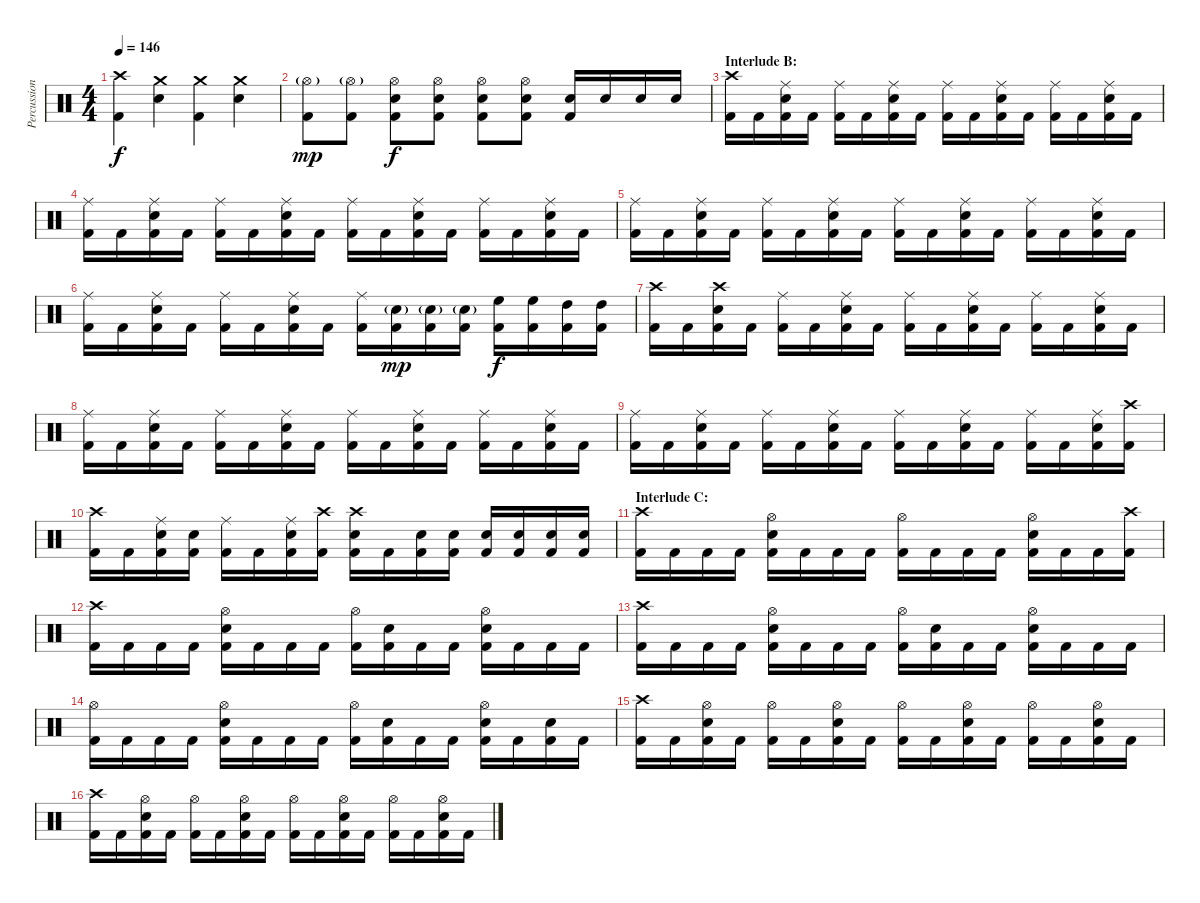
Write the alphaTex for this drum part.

\track ("Percussion" "Percussion") {instrument percussion}
\staff {score}
\articulation defaults
\ts (4 4)
\tempo 146
\clef neutral
\ks c
("Crash high (hit)" "Kick (hit) 2").4{dy f} ("Crash medium (hit)" "Snare (hit) 2").4 ("Crash medium (hit)" "Kick (hit) 2").4 ("Crash medium (hit)" "Snare (hit) 2").4 |
("Hi-Hat (open)"{g} "Kick (hit) 2").8{dy mp} ("Hi-Hat (open)"{g} "Kick (hit) 2").8 ("Hi-Hat (open)" "Snare (hit) 2" "Kick (hit) 2").8{dy f} ("Hi-Hat (open)" "Snare (hit) 2" "Kick (hit) 2").8 ("Hi-Hat (open)" "Snare (hit) 2" "Kick (hit) 2").8 ("Hi-Hat (open)" "Snare (hit) 2" "Kick (hit) 2").8 ("Snare (hit) 2" "Kick (hit) 2").16 "Snare (hit) 2".16 "Snare (hit) 2".16 "Snare (hit) 2".16 |
\section ("" "Interlude B:")
("Crash high (hit)" "Kick (hit) 2").16 "Kick (hit) 2".16 ("Ride (middle)" "Snare (hit) 2" "Kick (hit) 2").16 "Kick (hit) 2".16 ("Ride (middle)" "Kick (hit) 2").16 "Kick (hit) 2".16 ("Ride (middle)" "Snare (hit) 2" "Kick (hit) 2").16 "Kick (hit) 2".16 ("Ride (middle)" "Kick (hit) 2").16 "Kick (hit) 2".16 ("Ride (middle)" "Snare (hit) 2" "Kick (hit) 2").16 "Kick (hit) 2".16 ("Ride (middle)" "Kick (hit) 2").16 "Kick (hit) 2".16 ("Ride (middle)" "Snare (hit) 2" "Kick (hit) 2").16 "Kick (hit) 2".16 |
("Ride (middle)" "Kick (hit) 2").16 "Kick (hit) 2".16 ("Ride (middle)" "Snare (hit) 2" "Kick (hit) 2").16 "Kick (hit) 2".16 ("Ride (middle)" "Kick (hit) 2").16 "Kick (hit) 2".16 ("Ride (middle)" "Snare (hit) 2" "Kick (hit) 2").16 "Kick (hit) 2".16 ("Ride (middle)" "Kick (hit) 2").16 "Kick (hit) 2".16 ("Ride (middle)" "Snare (hit) 2" "Kick (hit) 2").16 "Kick (hit) 2".16 ("Ride (middle)" "Kick (hit) 2").16 "Kick (hit) 2".16 ("Ride (middle)" "Snare (hit) 2" "Kick (hit) 2").16 "Kick (hit) 2".16 |
("Ride (middle)" "Kick (hit) 2").16 "Kick (hit) 2".16 ("Ride (middle)" "Snare (hit) 2" "Kick (hit) 2").16 "Kick (hit) 2".16 ("Ride (middle)" "Kick (hit) 2").16 "Kick (hit) 2".16 ("Ride (middle)" "Snare (hit) 2" "Kick (hit) 2").16 "Kick (hit) 2".16 ("Ride (middle)" "Kick (hit) 2").16 "Kick (hit) 2".16 ("Ride (middle)" "Snare (hit) 2" "Kick (hit) 2").16 "Kick (hit) 2".16 ("Ride (middle)" "Kick (hit) 2").16 "Kick (hit) 2".16 ("Ride (middle)" "Snare (hit) 2" "Kick (hit) 2").16 "Kick (hit) 2".16 |
("Ride (middle)" "Kick (hit) 2").16 "Kick (hit) 2".16 ("Ride (middle)" "Snare (hit) 2" "Kick (hit) 2").16 "Kick (hit) 2".16 ("Ride (middle)" "Kick (hit) 2").16 "Kick (hit) 2".16 ("Ride (middle)" "Snare (hit) 2" "Kick (hit) 2").16 "Kick (hit) 2".16 ("Ride (middle)" "Kick (hit) 2").16 ("Snare (hit) 2"{g} "Kick (hit) 2").16{dy mp} ("Snare (hit) 2"{g} "Kick (hit) 2").16 ("Snare (hit) 2"{g} "Kick (hit) 2").16 ("High Floor Tom (hit)" "Kick (hit) 2").16{dy f} ("High Floor Tom (hit)" "Kick (hit) 2").16 ("High Tom (hit)" "Kick (hit) 2").16 ("High Tom (hit)" "Kick (hit) 2").16 |
("Crash high (hit)" "Kick (hit) 2").16 "Kick (hit) 2".16 ("Crash high (hit)" "Snare (hit) 2" "Kick (hit) 2").16 "Kick (hit) 2".16 ("Ride (middle)" "Kick (hit) 2").16 "Kick (hit) 2".16 ("Ride (middle)" "Snare (hit) 2" "Kick (hit) 2").16 "Kick (hit) 2".16 ("Ride (middle)" "Kick (hit) 2").16 "Kick (hit) 2".16 ("Ride (middle)" "Snare (hit) 2" "Kick (hit) 2").16 "Kick (hit) 2".16 ("Ride (middle)" "Kick (hit) 2").16 "Kick (hit) 2".16 ("Ride (middle)" "Snare (hit) 2" "Kick (hit) 2").16 "Kick (hit) 2".16 |
("Ride (middle)" "Kick (hit) 2").16 "Kick (hit) 2".16 ("Ride (middle)" "Snare (hit) 2" "Kick (hit) 2").16 "Kick (hit) 2".16 ("Ride (middle)" "Kick (hit) 2").16 "Kick (hit) 2".16 ("Ride (middle)" "Snare (hit) 2" "Kick (hit) 2").16 "Kick (hit) 2".16 ("Ride (middle)" "Kick (hit) 2").16 "Kick (hit) 2".16 ("Ride (middle)" "Snare (hit) 2" "Kick (hit) 2").16 "Kick (hit) 2".16 ("Ride (middle)" "Kick (hit) 2").16 "Kick (hit) 2".16 ("Ride (middle)" "Snare (hit) 2" "Kick (hit) 2").16 "Kick (hit) 2".16 |
("Ride (middle)" "Kick (hit) 2").16 "Kick (hit) 2".16 ("Ride (middle)" "Snare (hit) 2" "Kick (hit) 2").16 "Kick (hit) 2".16 ("Ride (middle)" "Kick (hit) 2").16 "Kick (hit) 2".16 ("Ride (middle)" "Snare (hit) 2" "Kick (hit) 2").16 "Kick (hit) 2".16 ("Ride (middle)" "Kick (hit) 2").16 "Kick (hit) 2".16 ("Ride (middle)" "Snare (hit) 2" "Kick (hit) 2").16 "Kick (hit) 2".16 ("Ride (middle)" "Kick (hit) 2").16 "Kick (hit) 2".16 ("Ride (middle)" "Snare (hit) 2" "Kick (hit) 2").16 ("Crash high (hit)" "Kick (hit) 2").16 |
("Crash high (hit)" "Kick (hit) 2").16 "Kick (hit) 2".16 ("Ride (middle)" "Snare (hit) 2" "Kick (hit) 2").16 ("Snare (hit) 2" "Kick (hit) 2").16 ("Ride (middle)" "Kick (hit) 2").16 "Kick (hit) 2".16 ("Ride (middle)" "Snare (hit) 2" "Kick (hit) 2").16 ("Crash high (hit)" "Kick (hit) 2").16 ("Crash high (hit)" "Snare (hit) 2" "Kick (hit) 2").16 "Kick (hit) 2".16 ("Snare (hit) 2" "Kick (hit) 2").16 ("Snare (hit) 2" "Kick (hit) 2").16 ("Snare (hit) 2" "Kick (hit) 2").16 ("Snare (hit) 2" "Kick (hit) 2").16 ("Snare (hit) 2" "Kick (hit) 2").16 ("Snare (hit) 2" "Kick (hit) 2").16 |
\section ("" "Interlude C:")
("Crash high (hit)" "Kick (hit) 2").16 "Kick (hit) 2".16 "Kick (hit) 2".16 "Kick (hit) 2".16 ("Hi-Hat (open)" "Snare (hit) 2" "Kick (hit) 2").16 "Kick (hit) 2".16 "Kick (hit) 2".16 "Kick (hit) 2".16 ("Hi-Hat (open)" "Kick (hit) 2").16 "Kick (hit) 2".16 "Kick (hit) 2".16 "Kick (hit) 2".16 ("Hi-Hat (open)" "Snare (hit) 2" "Kick (hit) 2").16 "Kick (hit) 2".16 "Kick (hit) 2".16 ("Crash high (hit)" "Kick (hit) 2").16 |
("Crash high (hit)" "Kick (hit) 2").16 "Kick (hit) 2".16 "Kick (hit) 2".16 "Kick (hit) 2".16 ("Hi-Hat (open)" "Snare (hit) 2" "Kick (hit) 2").16 "Kick (hit) 2".16 "Kick (hit) 2".16 "Kick (hit) 2".16 ("Hi-Hat (open)" "Kick (hit) 2").16 ("Snare (hit) 2" "Kick (hit) 2").16 "Kick (hit) 2".16 "Kick (hit) 2".16 ("Hi-Hat (open)" "Snare (hit) 2" "Kick (hit) 2").16 "Kick (hit) 2".16 "Kick (hit) 2".16 "Kick (hit) 2".16 |
("Crash high (hit)" "Kick (hit) 2").16 "Kick (hit) 2".16 "Kick (hit) 2".16 "Kick (hit) 2".16 ("Hi-Hat (open)" "Snare (hit) 2" "Kick (hit) 2").16 "Kick (hit) 2".16 "Kick (hit) 2".16 "Kick (hit) 2".16 ("Hi-Hat (open)" "Kick (hit) 2").16 ("Snare (hit) 2" "Kick (hit) 2").16 "Kick (hit) 2".16 "Kick (hit) 2".16 ("Hi-Hat (open)" "Snare (hit) 2" "Kick (hit) 2").16 "Kick (hit) 2".16 "Kick (hit) 2".16 "Kick (hit) 2".16 |
("Hi-Hat (open)" "Kick (hit) 2").16 "Kick (hit) 2".16 "Kick (hit) 2".16 "Kick (hit) 2".16 ("Hi-Hat (open)" "Snare (hit) 2" "Kick (hit) 2").16 "Kick (hit) 2".16 "Kick (hit) 2".16 "Kick (hit) 2".16 ("Hi-Hat (open)" "Kick (hit) 2").16 ("Snare (hit) 2" "Kick (hit) 2").16 "Kick (hit) 2".16 "Kick (hit) 2".16 ("Hi-Hat (open)" "Snare (hit) 2" "Kick (hit) 2").16 "Kick (hit) 2".16 ("Snare (hit) 2" "Kick (hit) 2").16 "Kick (hit) 2".16 |
("Crash high (hit)" "Kick (hit) 2").16 "Kick (hit) 2".16 ("Hi-Hat (open)" "Snare (hit) 2" "Kick (hit) 2").16 "Kick (hit) 2".16 ("Hi-Hat (open)" "Kick (hit) 2").16 "Kick (hit) 2".16 ("Hi-Hat (open)" "Snare (hit) 2" "Kick (hit) 2").16 "Kick (hit) 2".16 ("Hi-Hat (open)" "Kick (hit) 2").16 "Kick (hit) 2".16 ("Hi-Hat (open)" "Snare (hit) 2" "Kick (hit) 2").16 "Kick (hit) 2".16 ("Hi-Hat (open)" "Kick (hit) 2").16 "Kick (hit) 2".16 ("Hi-Hat (open)" "Snare (hit) 2" "Kick (hit) 2").16 "Kick (hit) 2".16 |
("Crash high (hit)" "Kick (hit) 2").16 "Kick (hit) 2".16 ("Hi-Hat (open)" "Snare (hit) 2" "Kick (hit) 2").16 "Kick (hit) 2".16 ("Hi-Hat (open)" "Kick (hit) 2").16 "Kick (hit) 2".16 ("Hi-Hat (open)" "Snare (hit) 2" "Kick (hit) 2").16 "Kick (hit) 2".16 ("Hi-Hat (open)" "Kick (hit) 2").16 "Kick (hit) 2".16 ("Hi-Hat (open)" "Snare (hit) 2" "Kick (hit) 2").16 "Kick (hit) 2".16 ("Hi-Hat (open)" "Kick (hit) 2").16 "Kick (hit) 2".16 ("Hi-Hat (open)" "Snare (hit) 2" "Kick (hit) 2").16 "Kick (hit) 2".16
